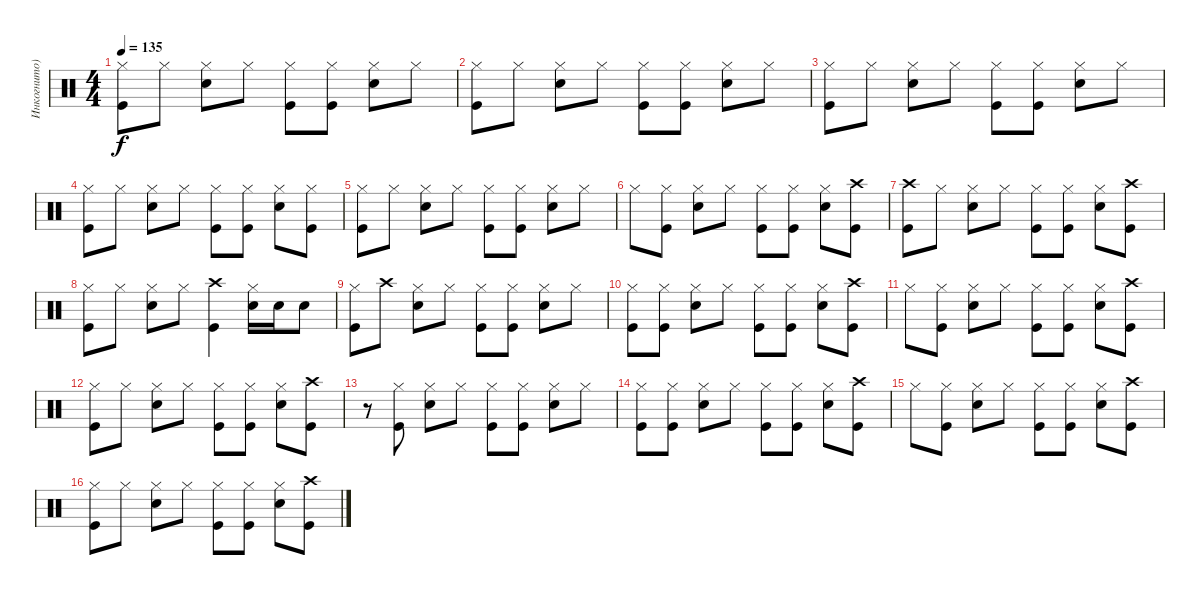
\track ("Инкогнито)" "Инкогнито)") {instrument percussion}
\staff {score}
\articulation defaults
\ts (4 4)
\tempo 135
\clef neutral
\ks c
("Hi-Hat (closed)" "Kick (hit)").8{dy f} "Hi-Hat (closed)".8 ("Hi-Hat (closed)" "Snare (hit) 2").8 "Hi-Hat (closed)".8 ("Hi-Hat (closed)" "Kick (hit)").8 ("Hi-Hat (closed)" "Kick (hit)").8 ("Hi-Hat (closed)" "Snare (hit) 2").8 "Hi-Hat (closed)".8 |
("Hi-Hat (closed)" "Kick (hit)").8 "Hi-Hat (closed)".8 ("Hi-Hat (closed)" "Snare (hit) 2").8 "Hi-Hat (closed)".8 ("Hi-Hat (closed)" "Kick (hit)").8 ("Hi-Hat (closed)" "Kick (hit)").8 ("Hi-Hat (closed)" "Snare (hit) 2").8 "Hi-Hat (closed)".8 |
("Hi-Hat (closed)" "Kick (hit)").8 "Hi-Hat (closed)".8 ("Hi-Hat (closed)" "Snare (hit) 2").8 "Hi-Hat (closed)".8 ("Hi-Hat (closed)" "Kick (hit)").8 ("Hi-Hat (closed)" "Kick (hit)").8 ("Hi-Hat (closed)" "Snare (hit) 2").8 "Hi-Hat (closed)".8 |
("Hi-Hat (closed)" "Kick (hit)").8 "Hi-Hat (closed)".8 ("Hi-Hat (closed)" "Snare (hit) 2").8 "Hi-Hat (closed)".8 ("Hi-Hat (closed)" "Kick (hit)").8 ("Hi-Hat (closed)" "Kick (hit)").8 ("Hi-Hat (closed)" "Snare (hit) 2").8 ("Hi-Hat (closed)" "Kick (hit)").8 |
("Hi-Hat (closed)" "Kick (hit)").8 "Hi-Hat (closed)".8 ("Hi-Hat (closed)" "Snare (hit) 2").8 "Hi-Hat (closed)".8 ("Hi-Hat (closed)" "Kick (hit)").8 ("Hi-Hat (closed)" "Kick (hit)").8 ("Hi-Hat (closed)" "Snare (hit) 2").8 "Hi-Hat (closed)".8 |
"Hi-Hat (closed)".8 ("Hi-Hat (closed)" "Kick (hit)").8 ("Hi-Hat (closed)" "Snare (hit) 2").8 "Hi-Hat (closed)".8 ("Hi-Hat (closed)" "Kick (hit)").8 ("Hi-Hat (closed)" "Kick (hit)").8 ("Hi-Hat (closed)" "Snare (hit) 2").8 ("Crash high (hit)" "Kick (hit)").8 |
("Crash high (hit)" "Kick (hit)").8 "Hi-Hat (closed)".8 ("Hi-Hat (closed)" "Snare (hit) 2").8 "Hi-Hat (closed)".8 ("Hi-Hat (closed)" "Kick (hit)").8 ("Hi-Hat (closed)" "Kick (hit)").8 ("Hi-Hat (closed)" "Snare (hit) 2").8 ("Crash high (hit)" "Kick (hit)").8 |
("Hi-Hat (closed)" "Kick (hit)").8 "Hi-Hat (closed)".8 ("Hi-Hat (closed)" "Snare (hit) 2").8 "Hi-Hat (closed)".8 ("Crash high (hit)" "Kick (hit)").4 ("Hi-Hat (closed)" "Snare (hit) 2").16 "Snare (hit) 2".16 "Snare (hit) 2".8 |
("Hi-Hat (closed)" "Kick (hit)").8 "Crash high (hit)".8 ("Hi-Hat (closed)" "Snare (hit) 2").8 "Hi-Hat (closed)".8 ("Hi-Hat (closed)" "Kick (hit)").8 ("Hi-Hat (closed)" "Kick (hit)").8 ("Hi-Hat (closed)" "Snare (hit) 2").8 "Hi-Hat (closed)".8 |
("Hi-Hat (closed)" "Kick (hit)").8 ("Hi-Hat (closed)" "Kick (hit)").8 ("Hi-Hat (closed)" "Snare (hit) 2").8 "Hi-Hat (closed)".8 ("Hi-Hat (closed)" "Kick (hit)").8 ("Hi-Hat (closed)" "Kick (hit)").8 ("Hi-Hat (closed)" "Snare (hit) 2").8 ("Crash high (hit)" "Kick (hit)").8 |
"Hi-Hat (closed)".8 ("Hi-Hat (closed)" "Kick (hit)").8 ("Hi-Hat (closed)" "Snare (hit) 2").8 "Hi-Hat (closed)".8 ("Hi-Hat (closed)" "Kick (hit)").8 ("Hi-Hat (closed)" "Kick (hit)").8 ("Hi-Hat (closed)" "Snare (hit) 2").8 ("Crash high (hit)" "Kick (hit)").8 |
("Hi-Hat (closed)" "Kick (hit)").8 "Hi-Hat (closed)".8 ("Hi-Hat (closed)" "Snare (hit) 2").8 "Hi-Hat (closed)".8 ("Hi-Hat (closed)" "Kick (hit)").8 ("Hi-Hat (closed)" "Kick (hit)").8 ("Hi-Hat (closed)" "Snare (hit) 2").8 ("Crash high (hit)" "Kick (hit)").8 |
r.8 ("Hi-Hat (closed)" "Kick (hit)").8 ("Hi-Hat (closed)" "Snare (hit) 2").8 "Hi-Hat (closed)".8 ("Hi-Hat (closed)" "Kick (hit)").8 ("Hi-Hat (closed)" "Kick (hit)").8 ("Hi-Hat (closed)" "Snare (hit) 2").8 "Hi-Hat (closed)".8 |
("Hi-Hat (closed)" "Kick (hit)").8 ("Hi-Hat (closed)" "Kick (hit)").8 ("Hi-Hat (closed)" "Snare (hit) 2").8 "Hi-Hat (closed)".8 ("Hi-Hat (closed)" "Kick (hit)").8 ("Hi-Hat (closed)" "Kick (hit)").8 ("Hi-Hat (closed)" "Snare (hit) 2").8 ("Crash high (hit)" "Kick (hit)").8 |
"Hi-Hat (closed)".8 ("Hi-Hat (closed)" "Kick (hit)").8 ("Hi-Hat (closed)" "Snare (hit) 2").8 "Hi-Hat (closed)".8 ("Hi-Hat (closed)" "Kick (hit)").8 ("Hi-Hat (closed)" "Kick (hit)").8 ("Hi-Hat (closed)" "Snare (hit) 2").8 ("Crash high (hit)" "Kick (hit)").8 |
("Hi-Hat (closed)" "Kick (hit)").8 "Hi-Hat (closed)".8 ("Hi-Hat (closed)" "Snare (hit) 2").8 "Hi-Hat (closed)".8 ("Hi-Hat (closed)" "Kick (hit)").8 ("Hi-Hat (closed)" "Kick (hit)").8 ("Hi-Hat (closed)" "Snare (hit) 2").8 ("Crash high (hit)" "Kick (hit)").8
